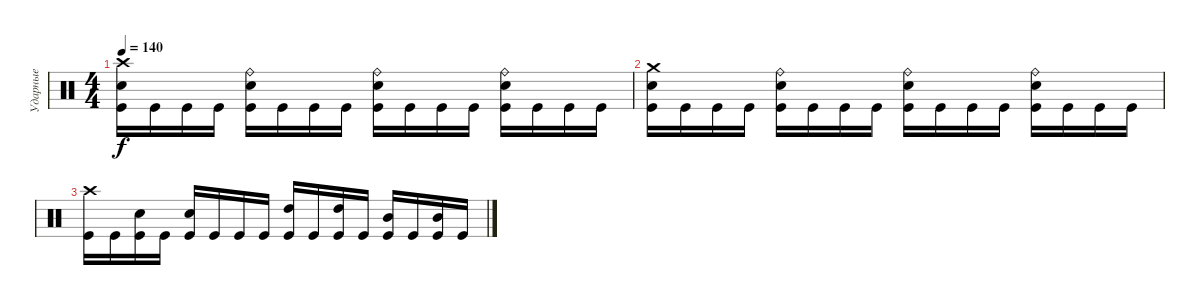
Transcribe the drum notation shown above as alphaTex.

\track ("Ударные" "Ударные") {instrument percussion}
\staff {score}
\articulation defaults
\ts (4 4)
\tempo 140
\clef neutral
\ks c
("Crash high (hit)" "Electric Snare (hit)" "Kick (hit)").16{dy f} "Kick (hit)".16 "Kick (hit)".16 "Kick (hit)".16 ("Ride (bell)" "Electric Snare (hit)" "Kick (hit)").16 "Kick (hit)".16 "Kick (hit)".16 "Kick (hit)".16 ("Ride (bell)" "Electric Snare (hit)" "Kick (hit)").16 "Kick (hit)".16 "Kick (hit)".16 "Kick (hit)".16 ("Ride (bell)" "Electric Snare (hit)" "Kick (hit)").16 "Kick (hit)".16 "Kick (hit)".16 "Kick (hit)".16 |
("Crash medium (hit)" "Electric Snare (hit)" "Kick (hit)").16 "Kick (hit)".16 "Kick (hit)".16 "Kick (hit)".16 ("Ride (bell)" "Electric Snare (hit)" "Kick (hit)").16 "Kick (hit)".16 "Kick (hit)".16 "Kick (hit)".16 ("Ride (bell)" "Electric Snare (hit)" "Kick (hit)").16 "Kick (hit)".16 "Kick (hit)".16 "Kick (hit)".16 ("Ride (bell)" "Electric Snare (hit)" "Kick (hit)").16 "Kick (hit)".16 "Kick (hit)".16 "Kick (hit)".16 |
("Crash high (hit)" "Kick (hit)").16 "Kick (hit)".16 ("Electric Snare (hit)" "Kick (hit)").16 "Kick (hit)".16 ("Electric Snare (hit)" "Kick (hit)").16 "Kick (hit)".16 "Kick (hit)".16 "Kick (hit)".16 ("High Tom (hit)" "Kick (hit)").16 "Kick (hit)".16 ("High Tom (hit)" "Kick (hit)").16 "Kick (hit)".16 ("Mid Tom (hit)" "Kick (hit)").16 "Kick (hit)".16 ("Mid Tom (hit)" "Kick (hit)").16 "Kick (hit)".16
